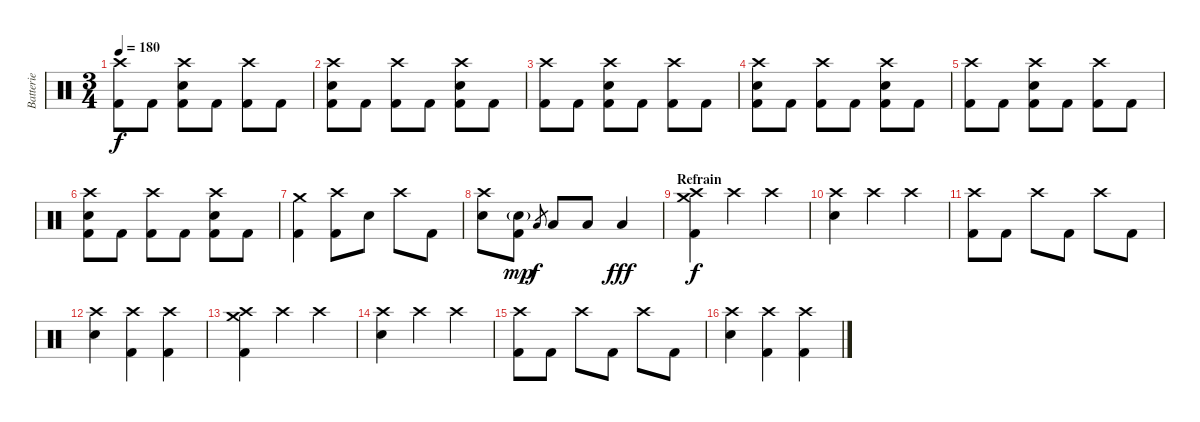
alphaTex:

\track ("Batterie" "Batterie") {instrument percussion}
\staff {score}
\articulation defaults
\ts (3 4)
\tempo 180
\clef neutral
\ks c
("Crash high (hit)" "Kick (hit) 2").8{dy f} "Kick (hit) 2".8 ("Crash high (hit)" "Electric Snare (hit)" "Kick (hit) 2").8 "Kick (hit) 2".8 ("Crash high (hit)" "Kick (hit) 2").8 "Kick (hit) 2".8 |
("Crash high (hit)" "Electric Snare (hit)" "Kick (hit) 2").8 "Kick (hit) 2".8 ("Crash high (hit)" "Kick (hit) 2").8 "Kick (hit) 2".8 ("Crash high (hit)" "Electric Snare (hit)" "Kick (hit) 2").8 "Kick (hit) 2".8 |
("Crash high (hit)" "Kick (hit) 2").8 "Kick (hit) 2".8 ("Crash high (hit)" "Electric Snare (hit)" "Kick (hit) 2").8 "Kick (hit) 2".8 ("Crash high (hit)" "Kick (hit) 2").8 "Kick (hit) 2".8 |
("Crash high (hit)" "Electric Snare (hit)" "Kick (hit) 2").8 "Kick (hit) 2".8 ("Crash high (hit)" "Kick (hit) 2").8 "Kick (hit) 2".8 ("Crash high (hit)" "Electric Snare (hit)" "Kick (hit) 2").8 "Kick (hit) 2".8 |
("Crash high (hit)" "Kick (hit) 2").8 "Kick (hit) 2".8 ("Crash high (hit)" "Electric Snare (hit)" "Kick (hit) 2").8 "Kick (hit) 2".8 ("Crash high (hit)" "Kick (hit) 2").8 "Kick (hit) 2".8 |
("Crash high (hit)" "Electric Snare (hit)" "Kick (hit) 2").8 "Kick (hit) 2".8 ("Crash high (hit)" "Kick (hit) 2").8 "Kick (hit) 2".8 ("Crash high (hit)" "Electric Snare (hit)" "Kick (hit) 2").8 "Kick (hit) 2".8 |
("Crash medium (hit)" "Kick (hit) 2").4 ("Crash high (hit)" "Kick (hit) 2").8 "Electric Snare (hit)".8 "Crash high (hit)".8 "Kick (hit) 2".8 |
("Crash high (hit)" "Electric Snare (hit)").8 ("Electric Snare (hit)"{g} "Kick (hit) 2").8{dy mp} "Low Tom (hit)".8{gr dy f} "Low Tom (hit)".8 "Low Tom (hit)".8 "Low Floor Tom (hit)".4{dy fff} |
\section ("" "Refrain")
("Crash medium (hit)" "Crash high (hit)" "Kick (hit) 2").4{dy f} "Crash high (hit)".4 "Crash high (hit)".4 |
("Crash high (hit)" "Electric Snare (hit)").4 "Crash high (hit)".4 "Crash high (hit)".4 |
("Crash high (hit)" "Kick (hit) 2").8 "Kick (hit) 2".8 "Crash high (hit)".8 "Kick (hit) 2".8 "Crash high (hit)".8 "Kick (hit) 2".8 |
("Crash high (hit)" "Electric Snare (hit)").4 ("Crash high (hit)" "Kick (hit) 2").4 ("Crash high (hit)" "Kick (hit) 2").4 |
("Crash medium (hit)" "Crash high (hit)" "Kick (hit) 2").4 "Crash high (hit)".4 "Crash high (hit)".4 |
("Crash high (hit)" "Electric Snare (hit)").4 "Crash high (hit)".4 "Crash high (hit)".4 |
("Crash high (hit)" "Kick (hit) 2").8 "Kick (hit) 2".8 "Crash high (hit)".8 "Kick (hit) 2".8 "Crash high (hit)".8 "Kick (hit) 2".8 |
("Crash high (hit)" "Electric Snare (hit)").4 ("Crash high (hit)" "Kick (hit) 2").4 ("Crash high (hit)" "Kick (hit) 2").4
